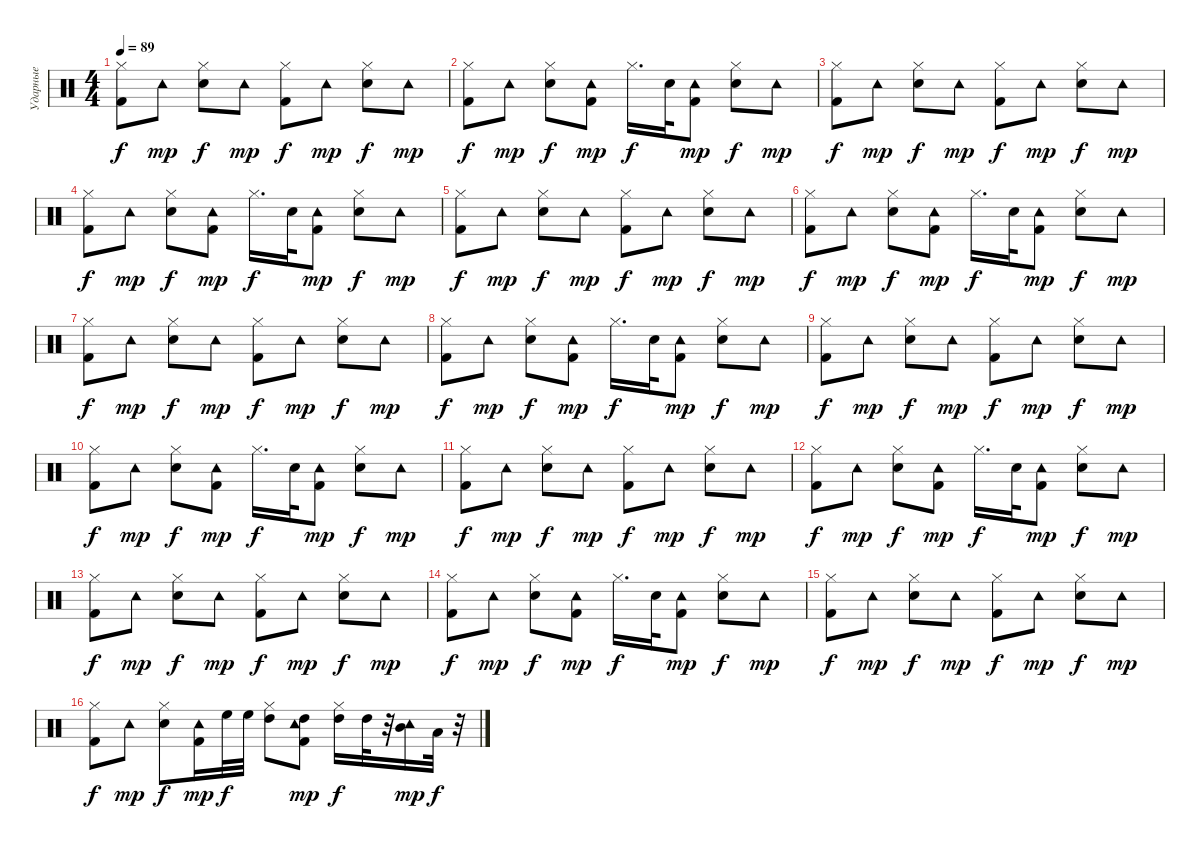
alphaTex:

\track ("Ударные" "Ударные") {instrument percussion}
\staff {score}
\articulation defaults
\ts (4 4)
\tempo 89
\clef neutral
\ks c
("Kick (hit) 2" "Hi-Hat (closed)").8{dy f} "Tambourine (hit)".8{dy mp} ("Electric Snare (hit)" "Hi-Hat (closed)").8{dy f} "Tambourine (hit)".8{dy mp} ("Kick (hit) 2" "Hi-Hat (closed)").8{dy f} "Tambourine (hit)".8{dy mp} ("Electric Snare (hit)" "Hi-Hat (closed)").8{dy f} "Tambourine (hit)".8{dy mp} |
("Kick (hit) 2" "Hi-Hat (closed)").8{dy f} "Tambourine (hit)".8{dy mp} ("Electric Snare (hit)" "Hi-Hat (closed)").8{dy f} ("Kick (hit) 2" "Tambourine (hit)").8{dy mp} "Hi-Hat (closed)".16{d dy f} "Electric Snare (hit)".32 ("Kick (hit) 2" "Tambourine (hit)").8{dy mp} ("Electric Snare (hit)" "Hi-Hat (closed)").8{dy f} "Tambourine (hit)".8{dy mp} |
("Kick (hit) 2" "Hi-Hat (closed)").8{dy f} "Tambourine (hit)".8{dy mp} ("Electric Snare (hit)" "Hi-Hat (closed)").8{dy f} "Tambourine (hit)".8{dy mp} ("Kick (hit) 2" "Hi-Hat (closed)").8{dy f} "Tambourine (hit)".8{dy mp} ("Electric Snare (hit)" "Hi-Hat (closed)").8{dy f} "Tambourine (hit)".8{dy mp} |
("Kick (hit) 2" "Hi-Hat (closed)").8{dy f} "Tambourine (hit)".8{dy mp} ("Electric Snare (hit)" "Hi-Hat (closed)").8{dy f} ("Kick (hit) 2" "Tambourine (hit)").8{dy mp} "Hi-Hat (closed)".16{d dy f} "Electric Snare (hit)".32 ("Kick (hit) 2" "Tambourine (hit)").8{dy mp} ("Electric Snare (hit)" "Hi-Hat (closed)").8{dy f} "Tambourine (hit)".8{dy mp} |
("Kick (hit) 2" "Hi-Hat (closed)").8{dy f} "Tambourine (hit)".8{dy mp} ("Electric Snare (hit)" "Hi-Hat (closed)").8{dy f} "Tambourine (hit)".8{dy mp} ("Kick (hit) 2" "Hi-Hat (closed)").8{dy f} "Tambourine (hit)".8{dy mp} ("Electric Snare (hit)" "Hi-Hat (closed)").8{dy f} "Tambourine (hit)".8{dy mp} |
("Kick (hit) 2" "Hi-Hat (closed)").8{dy f} "Tambourine (hit)".8{dy mp} ("Electric Snare (hit)" "Hi-Hat (closed)").8{dy f} ("Kick (hit) 2" "Tambourine (hit)").8{dy mp} "Hi-Hat (closed)".16{d dy f} "Electric Snare (hit)".32 ("Kick (hit) 2" "Tambourine (hit)").8{dy mp} ("Electric Snare (hit)" "Hi-Hat (closed)").8{dy f} "Tambourine (hit)".8{dy mp} |
("Kick (hit) 2" "Hi-Hat (closed)").8{dy f} "Tambourine (hit)".8{dy mp} ("Electric Snare (hit)" "Hi-Hat (closed)").8{dy f} "Tambourine (hit)".8{dy mp} ("Kick (hit) 2" "Hi-Hat (closed)").8{dy f} "Tambourine (hit)".8{dy mp} ("Electric Snare (hit)" "Hi-Hat (closed)").8{dy f} "Tambourine (hit)".8{dy mp} |
("Kick (hit) 2" "Hi-Hat (closed)").8{dy f} "Tambourine (hit)".8{dy mp} ("Electric Snare (hit)" "Hi-Hat (closed)").8{dy f} ("Kick (hit) 2" "Tambourine (hit)").8{dy mp} "Hi-Hat (closed)".16{d dy f} "Electric Snare (hit)".32 ("Kick (hit) 2" "Tambourine (hit)").8{dy mp} ("Electric Snare (hit)" "Hi-Hat (closed)").8{dy f} "Tambourine (hit)".8{dy mp} |
("Kick (hit) 2" "Hi-Hat (closed)").8{dy f} "Tambourine (hit)".8{dy mp} ("Electric Snare (hit)" "Hi-Hat (closed)").8{dy f} "Tambourine (hit)".8{dy mp} ("Kick (hit) 2" "Hi-Hat (closed)").8{dy f} "Tambourine (hit)".8{dy mp} ("Electric Snare (hit)" "Hi-Hat (closed)").8{dy f} "Tambourine (hit)".8{dy mp} |
("Kick (hit) 2" "Hi-Hat (closed)").8{dy f} "Tambourine (hit)".8{dy mp} ("Electric Snare (hit)" "Hi-Hat (closed)").8{dy f} ("Kick (hit) 2" "Tambourine (hit)").8{dy mp} "Hi-Hat (closed)".16{d dy f} "Electric Snare (hit)".32 ("Kick (hit) 2" "Tambourine (hit)").8{dy mp} ("Electric Snare (hit)" "Hi-Hat (closed)").8{dy f} "Tambourine (hit)".8{dy mp} |
("Kick (hit) 2" "Hi-Hat (closed)").8{dy f} "Tambourine (hit)".8{dy mp} ("Electric Snare (hit)" "Hi-Hat (closed)").8{dy f} "Tambourine (hit)".8{dy mp} ("Kick (hit) 2" "Hi-Hat (closed)").8{dy f} "Tambourine (hit)".8{dy mp} ("Electric Snare (hit)" "Hi-Hat (closed)").8{dy f} "Tambourine (hit)".8{dy mp} |
("Kick (hit) 2" "Hi-Hat (closed)").8{dy f} "Tambourine (hit)".8{dy mp} ("Electric Snare (hit)" "Hi-Hat (closed)").8{dy f} ("Kick (hit) 2" "Tambourine (hit)").8{dy mp} "Hi-Hat (closed)".16{d dy f} "Electric Snare (hit)".32 ("Kick (hit) 2" "Tambourine (hit)").8{dy mp} ("Electric Snare (hit)" "Hi-Hat (closed)").8{dy f} "Tambourine (hit)".8{dy mp} |
("Kick (hit) 2" "Hi-Hat (closed)").8{dy f} "Tambourine (hit)".8{dy mp} ("Electric Snare (hit)" "Hi-Hat (closed)").8{dy f} "Tambourine (hit)".8{dy mp} ("Kick (hit) 2" "Hi-Hat (closed)").8{dy f} "Tambourine (hit)".8{dy mp} ("Electric Snare (hit)" "Hi-Hat (closed)").8{dy f} "Tambourine (hit)".8{dy mp} |
("Kick (hit) 2" "Hi-Hat (closed)").8{dy f} "Tambourine (hit)".8{dy mp} ("Electric Snare (hit)" "Hi-Hat (closed)").8{dy f} ("Kick (hit) 2" "Tambourine (hit)").8{dy mp} "Hi-Hat (closed)".16{d dy f} "Electric Snare (hit)".32 ("Kick (hit) 2" "Tambourine (hit)").8{dy mp} ("Electric Snare (hit)" "Hi-Hat (closed)").8{dy f} "Tambourine (hit)".8{dy mp} |
("Kick (hit) 2" "Hi-Hat (closed)").8{dy f} "Tambourine (hit)".8{dy mp} ("Electric Snare (hit)" "Hi-Hat (closed)").8{dy f} "Tambourine (hit)".8{dy mp} ("Kick (hit) 2" "Hi-Hat (closed)").8{dy f} "Tambourine (hit)".8{dy mp} ("Electric Snare (hit)" "Hi-Hat (closed)").8{dy f} "Tambourine (hit)".8{dy mp} |
("Kick (hit) 2" "Hi-Hat (closed)").8{dy f} "Tambourine (hit)".8{dy mp} ("Electric Snare (hit)" "Hi-Hat (closed)").8{dy f} ("Kick (hit) 2" "Tambourine (hit)").16{dy mp} "High Floor Tom (hit)".32{dy f} "High Floor Tom (hit)".32 ("High Tom (hit)" "Hi-Hat (closed)").8 ("High Tom (hit)" "Tambourine (hit)" "Kick (hit) 2").8{dy mp} ("High Tom (hit)" "Hi-Hat (closed)").16{dy f} "High Tom (hit)".32 r.32 ("Mid Tom (hit)" "Tambourine (hit)").16{dy mp} "Low Tom (hit)".32{dy f} r.32
